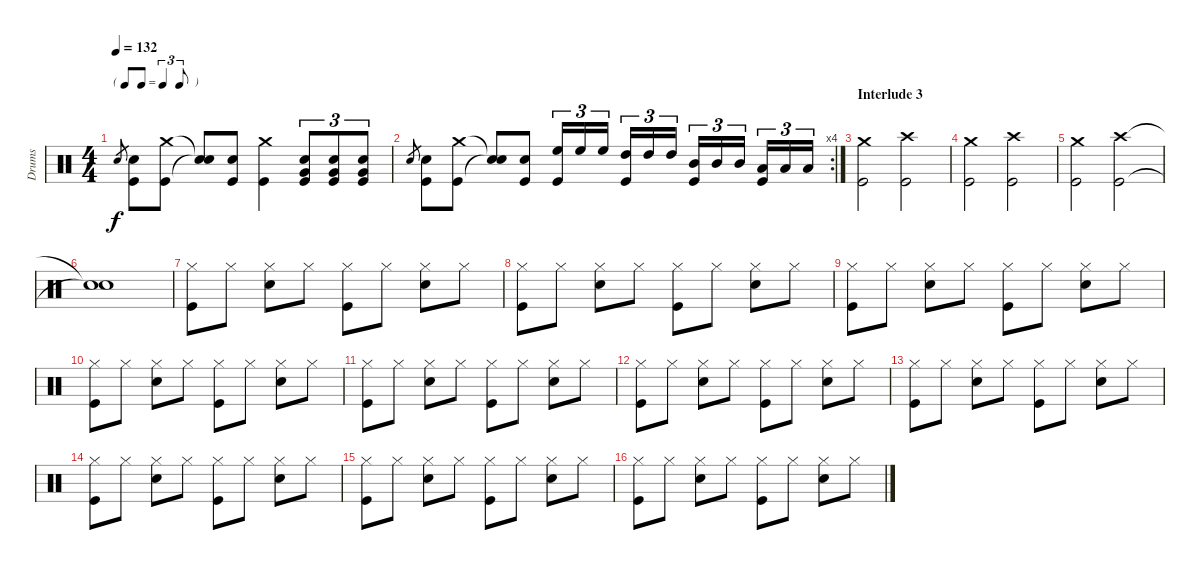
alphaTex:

\track ("Drums" "Drums") {instrument percussion}
\staff {score}
\articulation defaults
\ts (4 4)
\tf triplet8th
\tempo 132
\clef neutral
\ks c "Snare (hit) 2".8{gr dy f}
("Snare (hit) 2" "Kick (hit)").8 ("Crash medium (hit)" "Kick (hit)").8 ("Snare (hit)"{t} "Snare (hit)"{t}).8 ("Snare (hit) 2" "Kick (hit)").8 ("Crash medium (hit)" "Kick (hit)").4 ("Very Low Tom (hit)" "Snare (hit) 2" "Kick (hit)").8{tu (3 2)} ("Very Low Tom (hit)" "Snare (hit) 2" "Kick (hit)").8{tu (3 2)} ("Very Low Tom (hit)" "Snare (hit) 2" "Kick (hit)").8{tu (3 2)} |
\rc 4 "Snare (hit) 2".8{gr}
("Snare (hit) 2" "Kick (hit)").8 ("Crash medium (hit)" "Kick (hit)").8 ("Snare (hit)"{t} "Snare (hit)"{t}).8 ("Snare (hit) 2" "Kick (hit)").8 ("High Floor Tom (hit)" "Kick (hit)").16{tu (3 2)} "High Floor Tom (hit)".16{tu (3 2)} "High Floor Tom (hit)".16{tu (3 2)} ("High Tom (hit)" "Kick (hit)").16{tu (3 2)} "High Tom (hit)".16{tu (3 2)} "High Tom (hit)".16{tu (3 2)} ("Mid Tom (hit)" "Kick (hit)").16{tu (3 2)} "Mid Tom (hit)".16{tu (3 2)} "Mid Tom (hit)".16{tu (3 2)} ("Low Tom (hit)" "Kick (hit)").16{tu (3 2)} "Low Tom (hit)".16{tu (3 2)} "Low Tom (hit)".16{tu (3 2)} |
\section ("" "Interlude 3")
("Crash medium (hit)" "Kick (hit)").2 ("Crash high (hit)" "Kick (hit)").2 |
("Crash medium (hit)" "Kick (hit)").2 ("Crash high (hit)" "Kick (hit)").2 |
("Crash medium (hit)" "Kick (hit)").2 ("Crash high (hit)" "Kick (hit)").2 |
("Snare (hit)"{t} "Snare (hit)"{t}).1 |
("Hi-Hat (closed)" "Kick (hit)").8 "Hi-Hat (closed)".8 ("Hi-Hat (closed)" "Snare (hit) 2").8 "Hi-Hat (closed)".8 ("Hi-Hat (closed)" "Kick (hit)").8 "Hi-Hat (closed)".8 ("Hi-Hat (closed)" "Snare (hit) 2").8 "Hi-Hat (closed)".8 |
("Hi-Hat (closed)" "Kick (hit)").8 "Hi-Hat (closed)".8 ("Hi-Hat (closed)" "Snare (hit) 2").8 "Hi-Hat (closed)".8 ("Hi-Hat (closed)" "Kick (hit)").8 "Hi-Hat (closed)".8 ("Hi-Hat (closed)" "Snare (hit) 2").8 "Hi-Hat (closed)".8 |
("Hi-Hat (closed)" "Kick (hit)").8 "Hi-Hat (closed)".8 ("Hi-Hat (closed)" "Snare (hit) 2").8 "Hi-Hat (closed)".8 ("Hi-Hat (closed)" "Kick (hit)").8 "Hi-Hat (closed)".8 ("Hi-Hat (closed)" "Snare (hit) 2").8 "Hi-Hat (closed)".8 |
("Hi-Hat (closed)" "Kick (hit)").8 "Hi-Hat (closed)".8 ("Hi-Hat (closed)" "Snare (hit) 2").8 "Hi-Hat (closed)".8 ("Hi-Hat (closed)" "Kick (hit)").8 "Hi-Hat (closed)".8 ("Hi-Hat (closed)" "Snare (hit) 2").8 "Hi-Hat (closed)".8 |
("Hi-Hat (closed)" "Kick (hit)").8 "Hi-Hat (closed)".8 ("Hi-Hat (closed)" "Snare (hit) 2").8 "Hi-Hat (closed)".8 ("Hi-Hat (closed)" "Kick (hit)").8 "Hi-Hat (closed)".8 ("Hi-Hat (closed)" "Snare (hit) 2").8 "Hi-Hat (closed)".8 |
("Hi-Hat (closed)" "Kick (hit)").8 "Hi-Hat (closed)".8 ("Hi-Hat (closed)" "Snare (hit) 2").8 "Hi-Hat (closed)".8 ("Hi-Hat (closed)" "Kick (hit)").8 "Hi-Hat (closed)".8 ("Hi-Hat (closed)" "Snare (hit) 2").8 "Hi-Hat (closed)".8 |
("Hi-Hat (closed)" "Kick (hit)").8 "Hi-Hat (closed)".8 ("Hi-Hat (closed)" "Snare (hit) 2").8 "Hi-Hat (closed)".8 ("Hi-Hat (closed)" "Kick (hit)").8 "Hi-Hat (closed)".8 ("Hi-Hat (closed)" "Snare (hit) 2").8 "Hi-Hat (closed)".8 |
("Hi-Hat (closed)" "Kick (hit)").8 "Hi-Hat (closed)".8 ("Hi-Hat (closed)" "Snare (hit) 2").8 "Hi-Hat (closed)".8 ("Hi-Hat (closed)" "Kick (hit)").8 "Hi-Hat (closed)".8 ("Hi-Hat (closed)" "Snare (hit) 2").8 "Hi-Hat (closed)".8 |
("Hi-Hat (closed)" "Kick (hit)").8 "Hi-Hat (closed)".8 ("Hi-Hat (closed)" "Snare (hit) 2").8 "Hi-Hat (closed)".8 ("Hi-Hat (closed)" "Kick (hit)").8 "Hi-Hat (closed)".8 ("Hi-Hat (closed)" "Snare (hit) 2").8 "Hi-Hat (closed)".8 |
("Hi-Hat (closed)" "Kick (hit)").8 "Hi-Hat (closed)".8 ("Hi-Hat (closed)" "Snare (hit) 2").8 "Hi-Hat (closed)".8 ("Hi-Hat (closed)" "Kick (hit)").8 "Hi-Hat (closed)".8 ("Hi-Hat (closed)" "Snare (hit) 2").8 "Hi-Hat (closed)".8
